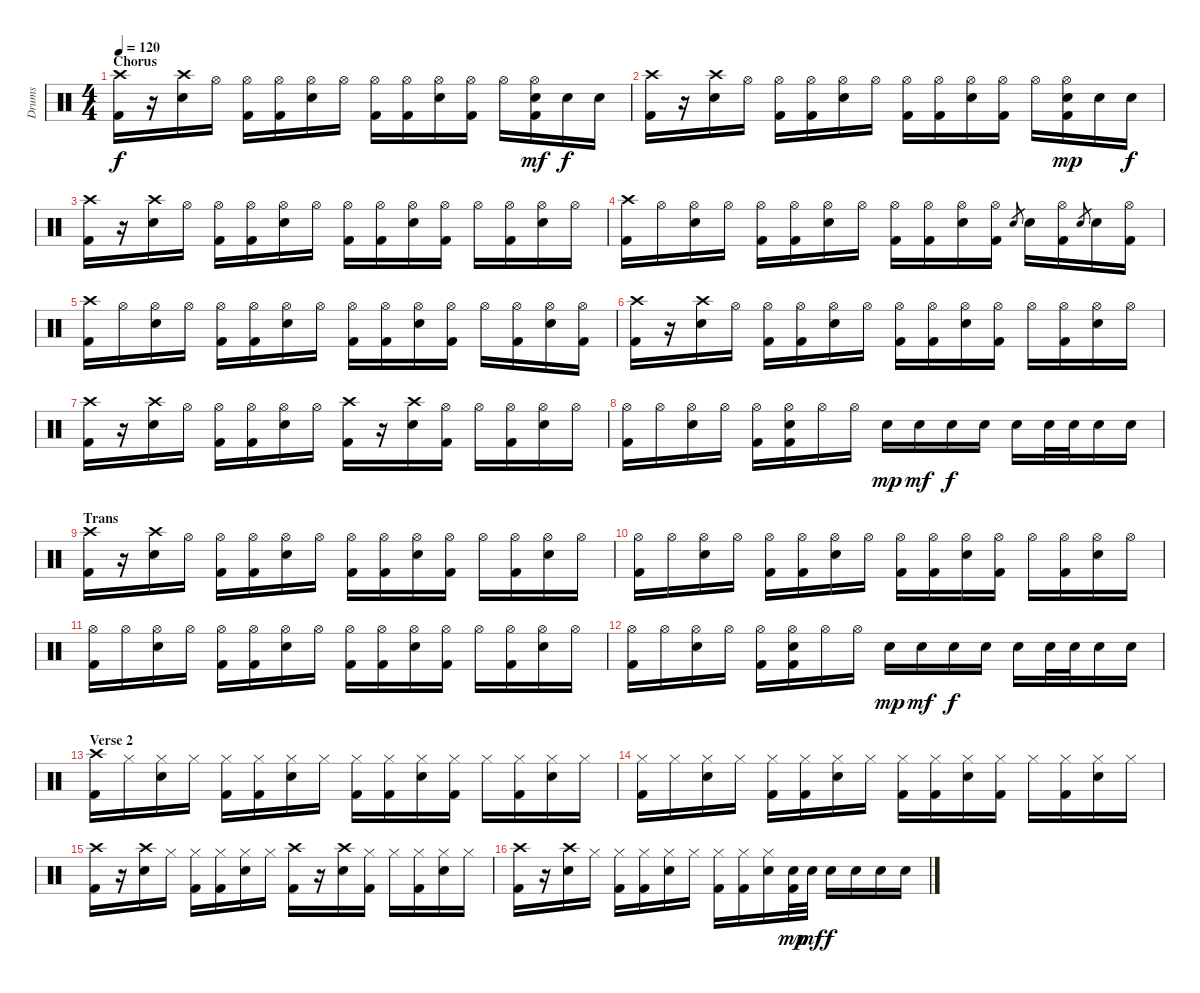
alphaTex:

\track ("Drums" "Drums") {instrument percussion}
\staff {score}
\articulation defaults
\ts (4 4)
\section ("" "Chorus")
\tempo 120
\clef neutral
\ks c
("Crash high (hit)" "Kick (hit) 2").16{dy f} r.16 ("Crash high (hit)" "Electric Snare (hit)").16 "Hi-Hat (open)".16 ("Hi-Hat (open)" "Kick (hit) 2").16 ("Hi-Hat (open)" "Kick (hit) 2").16 ("Hi-Hat (open)" "Electric Snare (hit)").16 "Hi-Hat (open)".16 ("Hi-Hat (open)" "Kick (hit) 2").16 ("Hi-Hat (open)" "Kick (hit) 2").16 ("Hi-Hat (open)" "Electric Snare (hit)").16 ("Hi-Hat (open)" "Kick (hit) 2").16 "Hi-Hat (open)".16 ("Hi-Hat (open)" "Electric Snare (hit)" "Kick (hit) 2").16{dy mf} "Electric Snare (hit)".16{dy f} "Electric Snare (hit)".16 |
("Crash high (hit)" "Kick (hit) 2").16 r.16 ("Crash high (hit)" "Electric Snare (hit)").16 "Hi-Hat (open)".16 ("Hi-Hat (open)" "Kick (hit) 2").16 ("Hi-Hat (open)" "Kick (hit) 2").16 ("Hi-Hat (open)" "Electric Snare (hit)").16 "Hi-Hat (open)".16 ("Hi-Hat (open)" "Kick (hit) 2").16 ("Hi-Hat (open)" "Kick (hit) 2").16 ("Hi-Hat (open)" "Electric Snare (hit)").16 ("Hi-Hat (open)" "Kick (hit) 2").16 "Hi-Hat (open)".16 ("Hi-Hat (open)" "Electric Snare (hit)" "Kick (hit) 2").16{dy mp} "Electric Snare (hit)".16 "Electric Snare (hit)".16{dy f} |
("Crash high (hit)" "Kick (hit) 2").16 r.16 ("Crash high (hit)" "Electric Snare (hit)").16 "Hi-Hat (open)".16 ("Hi-Hat (open)" "Kick (hit) 2").16 ("Hi-Hat (open)" "Kick (hit) 2").16 ("Hi-Hat (open)" "Electric Snare (hit)").16 "Hi-Hat (open)".16 ("Hi-Hat (open)" "Kick (hit) 2").16 ("Hi-Hat (open)" "Kick (hit) 2").16 ("Hi-Hat (open)" "Electric Snare (hit)").16 ("Hi-Hat (open)" "Kick (hit) 2").16 "Hi-Hat (open)".16 ("Hi-Hat (open)" "Kick (hit) 2").16 ("Hi-Hat (open)" "Electric Snare (hit)").16 "Hi-Hat (open)".16 |
("Crash high (hit)" "Kick (hit) 2").16 "Hi-Hat (open)".16 ("Hi-Hat (open)" "Electric Snare (hit)").16 "Hi-Hat (open)".16 ("Hi-Hat (open)" "Kick (hit) 2").16 ("Hi-Hat (open)" "Kick (hit) 2").16 ("Hi-Hat (open)" "Electric Snare (hit)").16 "Hi-Hat (open)".16 ("Hi-Hat (open)" "Kick (hit) 2").16 ("Hi-Hat (open)" "Kick (hit) 2").16 ("Hi-Hat (open)" "Electric Snare (hit)").16 ("Hi-Hat (open)" "Kick (hit) 2").16 "Electric Snare (hit)".8{gr} "Electric Snare (hit)".16 ("Hi-Hat (open)" "Kick (hit) 2").16 "Electric Snare (hit)".8{gr} "Electric Snare (hit)".16 ("Hi-Hat (open)" "Kick (hit) 2").16 |
("Crash high (hit)" "Kick (hit) 2").16 "Hi-Hat (open)".16 ("Hi-Hat (open)" "Electric Snare (hit)").16 "Hi-Hat (open)".16 ("Hi-Hat (open)" "Kick (hit) 2").16 ("Hi-Hat (open)" "Kick (hit) 2").16 ("Hi-Hat (open)" "Electric Snare (hit)").16 "Hi-Hat (open)".16 ("Hi-Hat (open)" "Kick (hit) 2").16 ("Hi-Hat (open)" "Kick (hit) 2").16 ("Hi-Hat (open)" "Electric Snare (hit)").16 ("Hi-Hat (open)" "Kick (hit) 2").16 "Hi-Hat (open)".16 ("Hi-Hat (open)" "Kick (hit) 2").16 ("Hi-Hat (open)" "Electric Snare (hit)").16 ("Hi-Hat (open)" "Kick (hit) 2").16 |
("Crash high (hit)" "Kick (hit) 2").16 r.16 ("Crash high (hit)" "Electric Snare (hit)").16 "Hi-Hat (open)".16 ("Hi-Hat (open)" "Kick (hit) 2").16 ("Hi-Hat (open)" "Kick (hit) 2").16 ("Hi-Hat (open)" "Electric Snare (hit)").16 "Hi-Hat (open)".16 ("Hi-Hat (open)" "Kick (hit) 2").16 ("Hi-Hat (open)" "Kick (hit) 2").16 ("Hi-Hat (open)" "Electric Snare (hit)").16 ("Hi-Hat (open)" "Kick (hit) 2").16 "Hi-Hat (open)".16 ("Hi-Hat (open)" "Kick (hit) 2").16 ("Hi-Hat (open)" "Electric Snare (hit)").16 "Hi-Hat (open)".16 |
("Crash high (hit)" "Kick (hit) 2").16 r.16 ("Crash high (hit)" "Electric Snare (hit)").16 "Hi-Hat (open)".16 ("Hi-Hat (open)" "Kick (hit) 2").16 ("Hi-Hat (open)" "Kick (hit) 2").16 ("Hi-Hat (open)" "Electric Snare (hit)").16 "Hi-Hat (open)".16 ("Crash high (hit)" "Kick (hit) 2").16 r.16 ("Crash high (hit)" "Electric Snare (hit)").16 ("Hi-Hat (open)" "Kick (hit) 2").16 "Hi-Hat (open)".16 ("Hi-Hat (open)" "Kick (hit) 2").16 ("Hi-Hat (open)" "Electric Snare (hit)").16 "Hi-Hat (open)".16 |
("Hi-Hat (open)" "Kick (hit) 2").16 "Hi-Hat (open)".16 ("Hi-Hat (open)" "Electric Snare (hit)").16 "Hi-Hat (open)".16 ("Hi-Hat (open)" "Kick (hit) 2").16 ("Hi-Hat (open)" "Electric Snare (hit)" "Kick (hit) 2").16 "Hi-Hat (open)".16 "Hi-Hat (open)".16 "Electric Snare (hit)".16{dy mp} "Electric Snare (hit)".16{dy mf} "Electric Snare (hit)".16{dy f} "Electric Snare (hit)".16 "Electric Snare (hit)".16 "Electric Snare (hit)".32 "Electric Snare (hit)".32 "Electric Snare (hit)".16 "Electric Snare (hit)".16 |
\section ("" "Trans")
("Crash high (hit)" "Kick (hit) 2").16 r.16 ("Crash high (hit)" "Electric Snare (hit)").16 "Hi-Hat (open)".16 ("Hi-Hat (open)" "Kick (hit) 2").16 ("Hi-Hat (open)" "Kick (hit) 2").16 ("Hi-Hat (open)" "Electric Snare (hit)").16 "Hi-Hat (open)".16 ("Hi-Hat (open)" "Kick (hit) 2").16 ("Hi-Hat (open)" "Kick (hit) 2").16 ("Hi-Hat (open)" "Electric Snare (hit)").16 ("Hi-Hat (open)" "Kick (hit) 2").16 "Hi-Hat (open)".16 ("Hi-Hat (open)" "Kick (hit) 2").16 ("Hi-Hat (open)" "Electric Snare (hit)").16 "Hi-Hat (open)".16 |
("Hi-Hat (open)" "Kick (hit) 2").16 "Hi-Hat (open)".16 ("Hi-Hat (open)" "Electric Snare (hit)").16 "Hi-Hat (open)".16 ("Hi-Hat (open)" "Kick (hit) 2").16 ("Hi-Hat (open)" "Kick (hit) 2").16 ("Hi-Hat (open)" "Electric Snare (hit)").16 "Hi-Hat (open)".16 ("Hi-Hat (open)" "Kick (hit) 2").16 ("Hi-Hat (open)" "Kick (hit) 2").16 ("Hi-Hat (open)" "Electric Snare (hit)").16 ("Hi-Hat (open)" "Kick (hit) 2").16 "Hi-Hat (open)".16 ("Hi-Hat (open)" "Kick (hit) 2").16 ("Hi-Hat (open)" "Electric Snare (hit)").16 "Hi-Hat (open)".16 |
("Hi-Hat (open)" "Kick (hit) 2").16 "Hi-Hat (open)".16 ("Hi-Hat (open)" "Electric Snare (hit)").16 "Hi-Hat (open)".16 ("Hi-Hat (open)" "Kick (hit) 2").16 ("Hi-Hat (open)" "Kick (hit) 2").16 ("Hi-Hat (open)" "Electric Snare (hit)").16 "Hi-Hat (open)".16 ("Hi-Hat (open)" "Kick (hit) 2").16 ("Hi-Hat (open)" "Kick (hit) 2").16 ("Hi-Hat (open)" "Electric Snare (hit)").16 ("Hi-Hat (open)" "Kick (hit) 2").16 "Hi-Hat (open)".16 ("Hi-Hat (open)" "Kick (hit) 2").16 ("Hi-Hat (open)" "Electric Snare (hit)").16 "Hi-Hat (open)".16 |
("Hi-Hat (open)" "Kick (hit) 2").16 "Hi-Hat (open)".16 ("Hi-Hat (open)" "Electric Snare (hit)").16 "Hi-Hat (open)".16 ("Hi-Hat (open)" "Kick (hit) 2").16 ("Hi-Hat (open)" "Electric Snare (hit)" "Kick (hit) 2").16 "Hi-Hat (open)".16 "Hi-Hat (open)".16 "Electric Snare (hit)".16{dy mp} "Electric Snare (hit)".16{dy mf} "Electric Snare (hit)".16{dy f} "Electric Snare (hit)".16 "Electric Snare (hit)".16 "Electric Snare (hit)".32 "Electric Snare (hit)".32 "Electric Snare (hit)".16 "Electric Snare (hit)".16 |
\section ("" "Verse 2")
("Crash high (hit)" "Kick (hit) 2").16 "Hi-Hat (closed)".16 ("Hi-Hat (closed)" "Electric Snare (hit)").16 "Hi-Hat (closed)".16 ("Hi-Hat (closed)" "Kick (hit) 2").16 ("Hi-Hat (closed)" "Kick (hit) 2").16 ("Hi-Hat (closed)" "Electric Snare (hit)").16 "Hi-Hat (closed)".16 ("Hi-Hat (closed)" "Kick (hit) 2").16 ("Hi-Hat (closed)" "Kick (hit) 2").16 ("Hi-Hat (closed)" "Electric Snare (hit)").16 ("Hi-Hat (closed)" "Kick (hit) 2").16 "Hi-Hat (closed)".16 ("Hi-Hat (closed)" "Kick (hit) 2").16 ("Hi-Hat (closed)" "Electric Snare (hit)").16 "Hi-Hat (closed)".16 |
("Hi-Hat (closed)" "Kick (hit) 2").16 "Hi-Hat (closed)".16 ("Hi-Hat (closed)" "Electric Snare (hit)").16 "Hi-Hat (closed)".16 ("Hi-Hat (closed)" "Kick (hit) 2").16 ("Hi-Hat (closed)" "Kick (hit) 2").16 ("Hi-Hat (closed)" "Electric Snare (hit)").16 "Hi-Hat (closed)".16 ("Hi-Hat (closed)" "Kick (hit) 2").16 ("Hi-Hat (closed)" "Kick (hit) 2").16 ("Hi-Hat (closed)" "Electric Snare (hit)").16 ("Hi-Hat (closed)" "Kick (hit) 2").16 "Hi-Hat (closed)".16 ("Hi-Hat (closed)" "Kick (hit) 2").16 ("Hi-Hat (closed)" "Electric Snare (hit)").16 "Hi-Hat (closed)".16 |
("Crash high (hit)" "Kick (hit) 2").16 r.16 ("Crash high (hit)" "Electric Snare (hit)").16 "Hi-Hat (closed)".16 ("Hi-Hat (closed)" "Kick (hit) 2").16 ("Hi-Hat (closed)" "Kick (hit) 2").16 ("Hi-Hat (closed)" "Electric Snare (hit)").16 "Hi-Hat (closed)".16 ("Crash high (hit)" "Kick (hit) 2").16 r.16 ("Crash high (hit)" "Electric Snare (hit)").16 ("Hi-Hat (closed)" "Kick (hit) 2").16 "Hi-Hat (closed)".16 ("Hi-Hat (closed)" "Kick (hit) 2").16 ("Hi-Hat (closed)" "Electric Snare (hit)").16 "Hi-Hat (closed)".16 |
("Crash high (hit)" "Kick (hit) 2").16 r.16 ("Crash high (hit)" "Electric Snare (hit)").16 "Hi-Hat (closed)".16 ("Hi-Hat (closed)" "Kick (hit) 2").16 ("Hi-Hat (closed)" "Kick (hit) 2").16 ("Hi-Hat (closed)" "Electric Snare (hit)").16 "Hi-Hat (closed)".16 ("Hi-Hat (closed)" "Kick (hit) 2").16 ("Hi-Hat (closed)" "Kick (hit) 2").16 ("Hi-Hat (closed)" "Electric Snare (hit)").16 ("Electric Snare (hit)" "Kick (hit) 2").32{dy mp} "Electric Snare (hit)".32{dy mf} "Electric Snare (hit)".16{dy f} "Electric Snare (hit)".16 "Electric Snare (hit)".16 "Electric Snare (hit)".16
